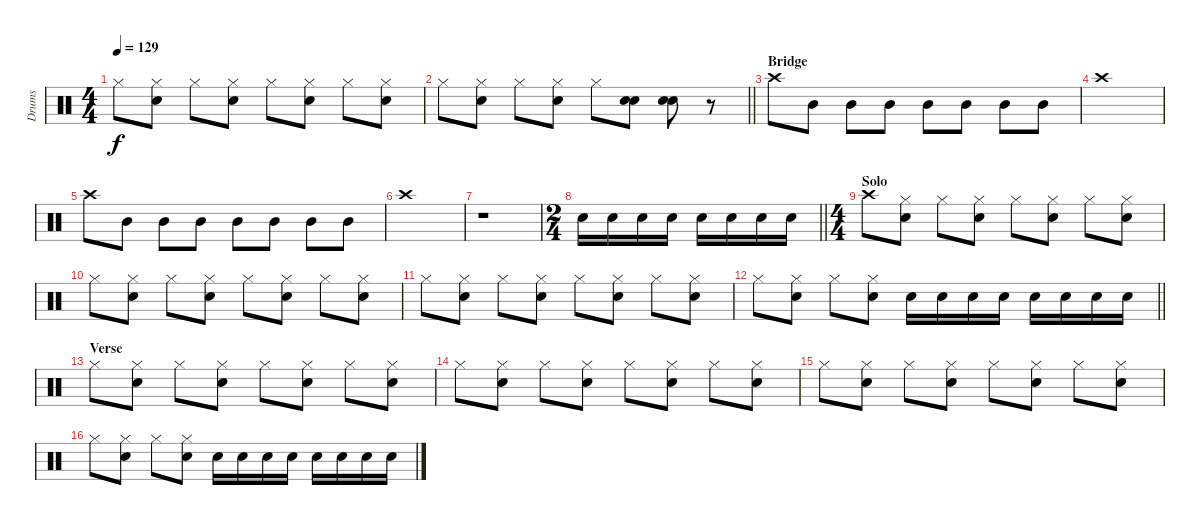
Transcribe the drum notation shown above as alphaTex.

\track ("Drums" "Drums") {instrument percussion}
\staff {score}
\articulation defaults
\ts (4 4)
\tempo 129
\clef neutral
\ks c "Hi-Hat (closed)".8{dy f}
("Hi-Hat (closed)" "Electric Snare (hit)").8 "Hi-Hat (closed)".8 ("Hi-Hat (closed)" "Electric Snare (hit)").8 "Hi-Hat (closed)".8 ("Hi-Hat (closed)" "Electric Snare (hit)").8 "Hi-Hat (closed)".8 ("Hi-Hat (closed)" "Electric Snare (hit)").8 |
\barLineRight lightlight "Hi-Hat (closed)".8
("Hi-Hat (closed)" "Electric Snare (hit)").8 "Hi-Hat (closed)".8 ("Hi-Hat (closed)" "Electric Snare (hit)").8 "Hi-Hat (closed)".8 ("Electric Snare (hit)" "Electric Snare (hit)").8 ("Electric Snare (hit)" "Electric Snare (hit)").8 r.8 |
\section ("" "Bridge")
"Crash high (hit)".8 "Mid Tom (hit)".8 "Mid Tom (hit)".8 "Mid Tom (hit)".8 "Mid Tom (hit)".8 "Mid Tom (hit)".8 "Mid Tom (hit)".8 "Mid Tom (hit)".8 |
"Crash high (hit)".1 |
"Crash high (hit)".8 "Mid Tom (hit)".8 "Mid Tom (hit)".8 "Mid Tom (hit)".8 "Mid Tom (hit)".8 "Mid Tom (hit)".8 "Mid Tom (hit)".8 "Mid Tom (hit)".8 |
"Crash high (hit)".1 |
r.1 |
\ts (2 4)
\barLineRight lightlight "Electric Snare (hit)".16 "Electric Snare (hit)".16 "Electric Snare (hit)".16 "Electric Snare (hit)".16 "Electric Snare (hit)".16 "Electric Snare (hit)".16 "Electric Snare (hit)".16 "Electric Snare (hit)".16
|
\ts (4 4)
\section ("" "Solo")
"Crash high (hit)".8 ("Hi-Hat (closed)" "Electric Snare (hit)").8 "Hi-Hat (closed)".8 ("Hi-Hat (closed)" "Electric Snare (hit)").8 "Hi-Hat (closed)".8 ("Hi-Hat (closed)" "Electric Snare (hit)").8 "Hi-Hat (closed)".8 ("Hi-Hat (closed)" "Electric Snare (hit)").8 |
"Hi-Hat (closed)".8 ("Hi-Hat (closed)" "Electric Snare (hit)").8 "Hi-Hat (closed)".8 ("Hi-Hat (closed)" "Electric Snare (hit)").8 "Hi-Hat (closed)".8 ("Hi-Hat (closed)" "Electric Snare (hit)").8 "Hi-Hat (closed)".8 ("Hi-Hat (closed)" "Electric Snare (hit)").8 |
"Hi-Hat (closed)".8 ("Hi-Hat (closed)" "Electric Snare (hit)").8 "Hi-Hat (closed)".8 ("Hi-Hat (closed)" "Electric Snare (hit)").8 "Hi-Hat (closed)".8 ("Hi-Hat (closed)" "Electric Snare (hit)").8 "Hi-Hat (closed)".8 ("Hi-Hat (closed)" "Electric Snare (hit)").8 |
\barLineRight lightlight "Hi-Hat (closed)".8
("Hi-Hat (closed)" "Electric Snare (hit)").8 "Hi-Hat (closed)".8 ("Hi-Hat (closed)" "Electric Snare (hit)").8 "Electric Snare (hit)".16 "Electric Snare (hit)".16 "Electric Snare (hit)".16 "Electric Snare (hit)".16 "Electric Snare (hit)".16 "Electric Snare (hit)".16 "Electric Snare (hit)".16 "Electric Snare (hit)".16 |
\section ("" "Verse")
"Hi-Hat (closed)".8 ("Hi-Hat (closed)" "Electric Snare (hit)").8 "Hi-Hat (closed)".8 ("Hi-Hat (closed)" "Electric Snare (hit)").8 "Hi-Hat (closed)".8 ("Hi-Hat (closed)" "Electric Snare (hit)").8 "Hi-Hat (closed)".8 ("Hi-Hat (closed)" "Electric Snare (hit)").8 |
"Hi-Hat (closed)".8 ("Hi-Hat (closed)" "Electric Snare (hit)").8 "Hi-Hat (closed)".8 ("Hi-Hat (closed)" "Electric Snare (hit)").8 "Hi-Hat (closed)".8 ("Hi-Hat (closed)" "Electric Snare (hit)").8 "Hi-Hat (closed)".8 ("Hi-Hat (closed)" "Electric Snare (hit)").8 |
"Hi-Hat (closed)".8 ("Hi-Hat (closed)" "Electric Snare (hit)").8 "Hi-Hat (closed)".8 ("Hi-Hat (closed)" "Electric Snare (hit)").8 "Hi-Hat (closed)".8 ("Hi-Hat (closed)" "Electric Snare (hit)").8 "Hi-Hat (closed)".8 ("Hi-Hat (closed)" "Electric Snare (hit)").8 |
"Hi-Hat (closed)".8 ("Hi-Hat (closed)" "Electric Snare (hit)").8 "Hi-Hat (closed)".8 ("Hi-Hat (closed)" "Electric Snare (hit)").8 "Electric Snare (hit)".16 "Electric Snare (hit)".16 "Electric Snare (hit)".16 "Electric Snare (hit)".16 "Electric Snare (hit)".16 "Electric Snare (hit)".16 "Electric Snare (hit)".16 "Electric Snare (hit)".16
